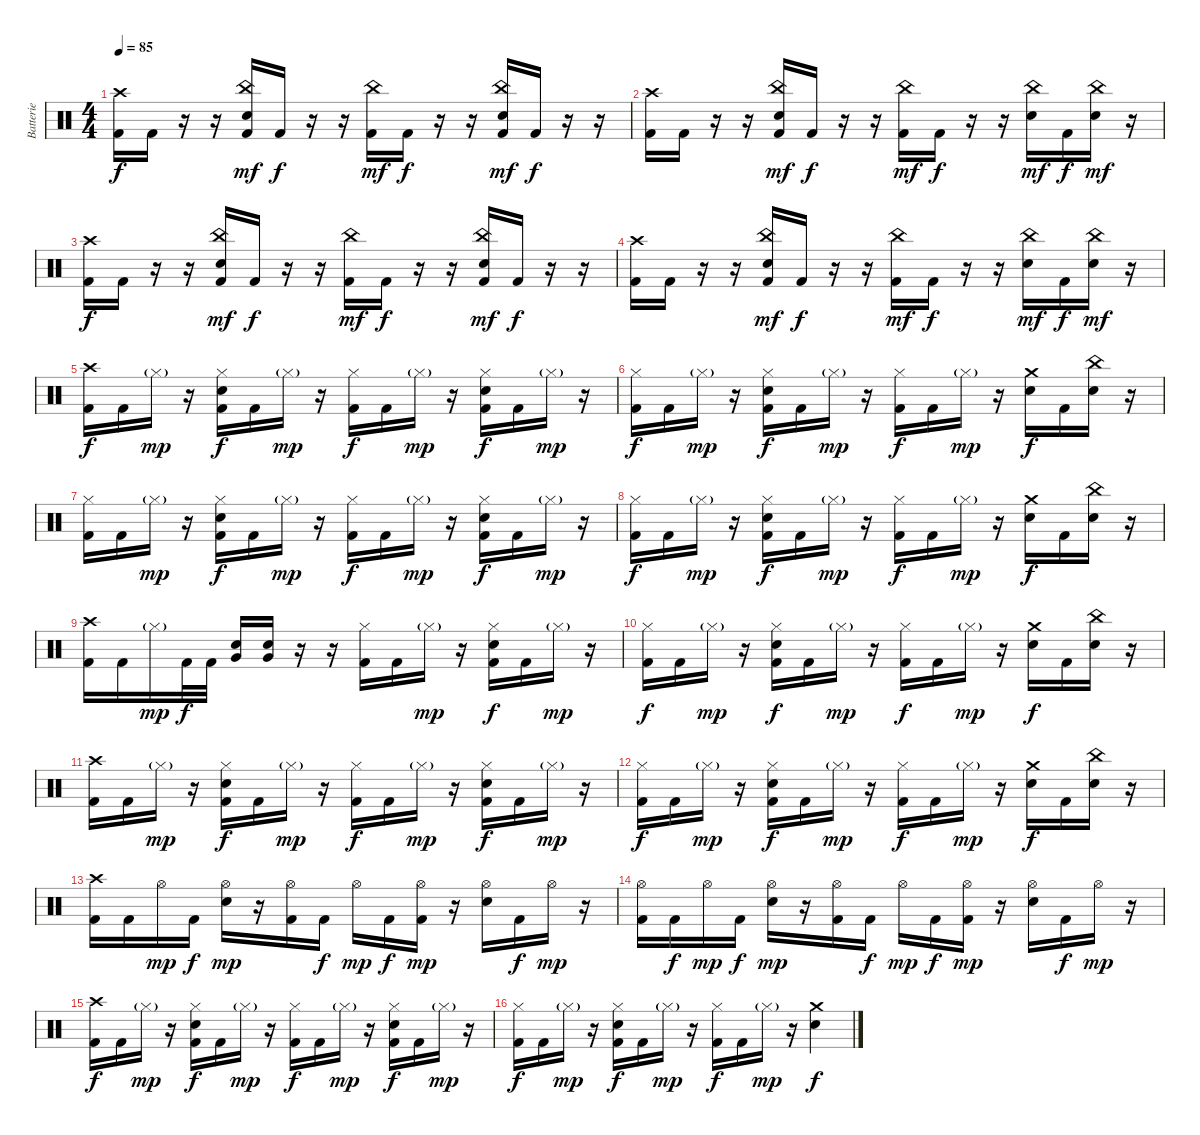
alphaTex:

\track ("Batterie" "Batterie") {instrument percussion}
\staff {score}
\articulation defaults
\ts (4 4)
\tempo 85
\clef neutral
\ks c
("Crash high (hit)" "Kick (hit) 2").16{dy f} "Kick (hit) 2".16 r.16 r.16 ("China (hit)" "Electric Snare (hit)" "Kick (hit) 2").16{dy mf} "Kick (hit) 2".16{dy f} r.16 r.16 ("China (hit)" "Kick (hit) 2").16{dy mf} "Kick (hit) 2".16{dy f} r.16 r.16 ("China (hit)" "Electric Snare (hit)" "Kick (hit) 2").16{dy mf} "Kick (hit) 2".16{dy f} r.16 r.16 |
("Crash high (hit)" "Kick (hit) 2").16 "Kick (hit) 2".16 r.16 r.16 ("China (hit)" "Electric Snare (hit)" "Kick (hit) 2").16{dy mf} "Kick (hit) 2".16{dy f} r.16 r.16 ("China (hit)" "Kick (hit) 2").16{dy mf} "Kick (hit) 2".16{dy f} r.16 r.16 ("China (hit)" "Electric Snare (hit)").16{dy mf} "Kick (hit) 2".16{dy f} ("China (hit)" "Electric Snare (hit)").16{dy mf} r.16 |
("Crash high (hit)" "Kick (hit) 2").16{dy f} "Kick (hit) 2".16 r.16 r.16 ("China (hit)" "Electric Snare (hit)" "Kick (hit) 2").16{dy mf} "Kick (hit) 2".16{dy f} r.16 r.16 ("China (hit)" "Kick (hit) 2").16{dy mf} "Kick (hit) 2".16{dy f} r.16 r.16 ("China (hit)" "Electric Snare (hit)" "Kick (hit) 2").16{dy mf} "Kick (hit) 2".16{dy f} r.16 r.16 |
("Crash high (hit)" "Kick (hit) 2").16 "Kick (hit) 2".16 r.16 r.16 ("China (hit)" "Electric Snare (hit)" "Kick (hit) 2").16{dy mf} "Kick (hit) 2".16{dy f} r.16 r.16 ("China (hit)" "Kick (hit) 2").16{dy mf} "Kick (hit) 2".16{dy f} r.16 r.16 ("China (hit)" "Electric Snare (hit)").16{dy mf} "Kick (hit) 2".16{dy f} ("China (hit)" "Electric Snare (hit)").16{dy mf} r.16 |
("Crash high (hit)" "Kick (hit) 2").16{dy f} "Kick (hit) 2".16 "Hi-Hat (closed)"{g}.16{dy mp} r.16 ("Hi-Hat (closed)" "Electric Snare (hit)" "Kick (hit) 2").16{dy f} "Kick (hit) 2".16 "Hi-Hat (closed)"{g}.16{dy mp} r.16 ("Hi-Hat (closed)" "Kick (hit) 2").16{dy f} "Kick (hit) 2".16 "Hi-Hat (closed)"{g}.16{dy mp} r.16 ("Hi-Hat (closed)" "Electric Snare (hit)" "Kick (hit) 2").16{dy f} "Kick (hit) 2".16 "Hi-Hat (closed)"{g}.16{dy mp} r.16 |
("Hi-Hat (closed)" "Kick (hit) 2").16{dy f} "Kick (hit) 2".16 "Hi-Hat (closed)"{g}.16{dy mp} r.16 ("Hi-Hat (closed)" "Electric Snare (hit)" "Kick (hit) 2").16{dy f} "Kick (hit) 2".16 "Hi-Hat (closed)"{g}.16{dy mp} r.16 ("Hi-Hat (closed)" "Kick (hit) 2").16{dy f} "Kick (hit) 2".16 "Hi-Hat (closed)"{g}.16{dy mp} r.16 ("Crash medium (hit)" "Electric Snare (hit)").16{dy f} "Kick (hit) 2".16 ("China (hit)" "Electric Snare (hit)").16 r.16 |
("Hi-Hat (closed)" "Kick (hit) 2").16 "Kick (hit) 2".16 "Hi-Hat (closed)"{g}.16{dy mp} r.16 ("Hi-Hat (closed)" "Electric Snare (hit)" "Kick (hit) 2").16{dy f} "Kick (hit) 2".16 "Hi-Hat (closed)"{g}.16{dy mp} r.16 ("Hi-Hat (closed)" "Kick (hit) 2").16{dy f} "Kick (hit) 2".16 "Hi-Hat (closed)"{g}.16{dy mp} r.16 ("Hi-Hat (closed)" "Electric Snare (hit)" "Kick (hit) 2").16{dy f} "Kick (hit) 2".16 "Hi-Hat (closed)"{g}.16{dy mp} r.16 |
("Hi-Hat (closed)" "Kick (hit) 2").16{dy f} "Kick (hit) 2".16 "Hi-Hat (closed)"{g}.16{dy mp} r.16 ("Hi-Hat (closed)" "Electric Snare (hit)" "Kick (hit) 2").16{dy f} "Kick (hit) 2".16 "Hi-Hat (closed)"{g}.16{dy mp} r.16 ("Hi-Hat (closed)" "Kick (hit) 2").16{dy f} "Kick (hit) 2".16 "Hi-Hat (closed)"{g}.16{dy mp} r.16 ("Crash medium (hit)" "Electric Snare (hit)").16{dy f} "Kick (hit) 2".16 ("China (hit)" "Electric Snare (hit)").16 r.16 |
("Crash high (hit)" "Kick (hit) 2").16 "Kick (hit) 2".16 "Hi-Hat (closed)"{g}.16{dy mp} "Kick (hit) 2".32{dy f} "Kick (hit) 2".32 ("Electric Snare (hit)" "Very Low Tom (hit)").16 ("Electric Snare (hit)" "Very Low Tom (hit)").16 r.16 r.16 ("Hi-Hat (closed)" "Kick (hit) 2").16 "Kick (hit) 2".16 "Hi-Hat (closed)"{g}.16{dy mp} r.16 ("Hi-Hat (closed)" "Electric Snare (hit)" "Kick (hit) 2").16{dy f} "Kick (hit) 2".16 "Hi-Hat (closed)"{g}.16{dy mp} r.16 |
("Hi-Hat (closed)" "Kick (hit) 2").16{dy f} "Kick (hit) 2".16 "Hi-Hat (closed)"{g}.16{dy mp} r.16 ("Hi-Hat (closed)" "Electric Snare (hit)" "Kick (hit) 2").16{dy f} "Kick (hit) 2".16 "Hi-Hat (closed)"{g}.16{dy mp} r.16 ("Hi-Hat (closed)" "Kick (hit) 2").16{dy f} "Kick (hit) 2".16 "Hi-Hat (closed)"{g}.16{dy mp} r.16 ("Crash medium (hit)" "Electric Snare (hit)").16{dy f} "Kick (hit) 2".16 ("China (hit)" "Electric Snare (hit)").16 r.16 |
("Crash high (hit)" "Kick (hit) 2").16 "Kick (hit) 2".16 "Hi-Hat (closed)"{g}.16{dy mp} r.16 ("Hi-Hat (closed)" "Electric Snare (hit)" "Kick (hit) 2").16{dy f} "Kick (hit) 2".16 "Hi-Hat (closed)"{g}.16{dy mp} r.16 ("Hi-Hat (closed)" "Kick (hit) 2").16{dy f} "Kick (hit) 2".16 "Hi-Hat (closed)"{g}.16{dy mp} r.16 ("Hi-Hat (closed)" "Electric Snare (hit)" "Kick (hit) 2").16{dy f} "Kick (hit) 2".16 "Hi-Hat (closed)"{g}.16{dy mp} r.16 |
("Hi-Hat (closed)" "Kick (hit) 2").16{dy f} "Kick (hit) 2".16 "Hi-Hat (closed)"{g}.16{dy mp} r.16 ("Hi-Hat (closed)" "Electric Snare (hit)" "Kick (hit) 2").16{dy f} "Kick (hit) 2".16 "Hi-Hat (closed)"{g}.16{dy mp} r.16 ("Hi-Hat (closed)" "Kick (hit) 2").16{dy f} "Kick (hit) 2".16 "Hi-Hat (closed)"{g}.16{dy mp} r.16 ("Crash medium (hit)" "Electric Snare (hit)").16{dy f} "Kick (hit) 2".16 ("China (hit)" "Electric Snare (hit)").16 r.16 |
("Crash high (hit)" "Kick (hit) 2").16 "Kick (hit) 2".16 "Hi-Hat (open)".16{dy mp} "Kick (hit) 2".16{dy f} ("Hi-Hat (open)" "Electric Snare (hit)").16{dy mp} r.16 ("Hi-Hat (open)" "Kick (hit) 2").16 "Kick (hit) 2".16{dy f} "Hi-Hat (open)".16{dy mp} "Kick (hit) 2".16{dy f} ("Hi-Hat (open)" "Kick (hit) 2").16{dy mp} r.16 ("Hi-Hat (open)" "Electric Snare (hit)").16 "Kick (hit) 2".16{dy f} "Hi-Hat (open)".16{dy mp} r.16 |
("Hi-Hat (open)" "Kick (hit) 2").16 "Kick (hit) 2".16{dy f} "Hi-Hat (open)".16{dy mp} "Kick (hit) 2".16{dy f} ("Hi-Hat (open)" "Electric Snare (hit)").16{dy mp} r.16 ("Hi-Hat (open)" "Kick (hit) 2").16 "Kick (hit) 2".16{dy f} "Hi-Hat (open)".16{dy mp} "Kick (hit) 2".16{dy f} ("Hi-Hat (open)" "Kick (hit) 2").16{dy mp} r.16 ("Hi-Hat (open)" "Electric Snare (hit)").16 "Kick (hit) 2".16{dy f} "Hi-Hat (open)".16{dy mp} r.16 |
("Crash high (hit)" "Kick (hit) 2").16{dy f} "Kick (hit) 2".16 "Hi-Hat (closed)"{g}.16{dy mp} r.16 ("Hi-Hat (closed)" "Electric Snare (hit)" "Kick (hit) 2").16{dy f} "Kick (hit) 2".16 "Hi-Hat (closed)"{g}.16{dy mp} r.16 ("Hi-Hat (closed)" "Kick (hit) 2").16{dy f} "Kick (hit) 2".16 "Hi-Hat (closed)"{g}.16{dy mp} r.16 ("Hi-Hat (closed)" "Electric Snare (hit)" "Kick (hit) 2").16{dy f} "Kick (hit) 2".16 "Hi-Hat (closed)"{g}.16{dy mp} r.16 |
("Hi-Hat (closed)" "Kick (hit) 2").16{dy f} "Kick (hit) 2".16 "Hi-Hat (closed)"{g}.16{dy mp} r.16 ("Hi-Hat (closed)" "Electric Snare (hit)" "Kick (hit) 2").16{dy f} "Kick (hit) 2".16 "Hi-Hat (closed)"{g}.16{dy mp} r.16 ("Hi-Hat (closed)" "Kick (hit) 2").16{dy f} "Kick (hit) 2".16 "Hi-Hat (closed)"{g}.16{dy mp} r.16 ("Crash medium (hit)" "Electric Snare (hit)").4{dy f}
